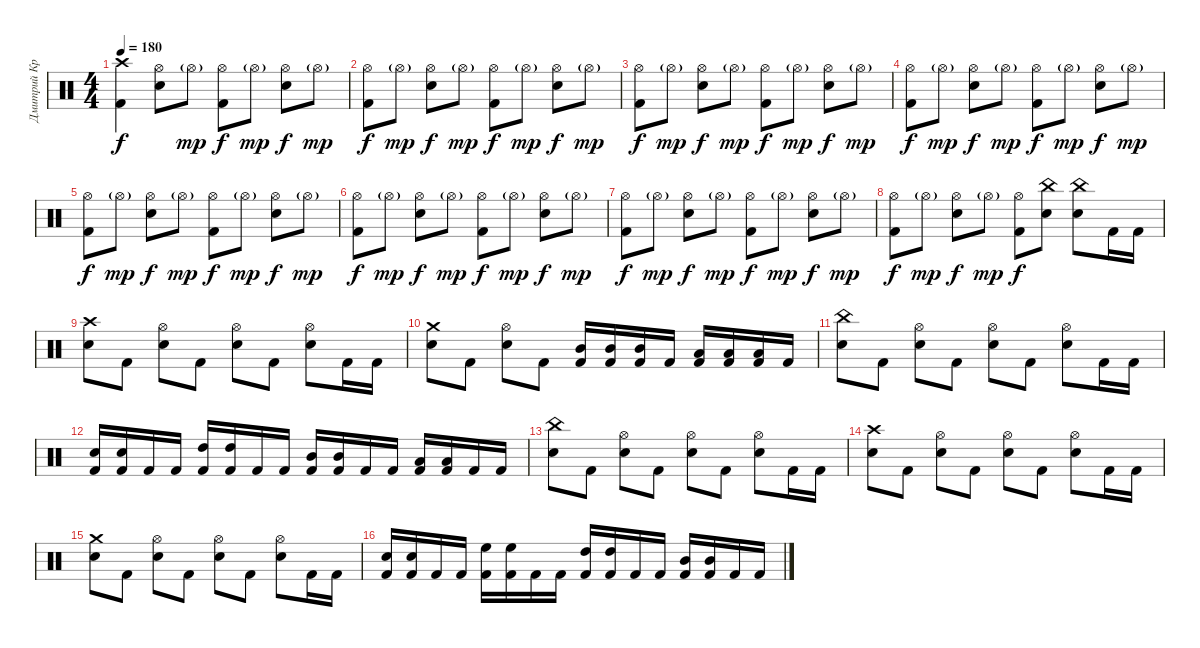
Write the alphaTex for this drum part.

\track ("Дмитрий Кривенков" "Дмитрий Кр") {instrument percussion}
\staff {score}
\articulation defaults
\ts (4 4)
\tempo 180
\clef neutral
\ks c
("Crash high (hit)" "Kick (hit) 2").4{dy f} ("Hi-Hat (open)" "Electric Snare (hit)").8 "Hi-Hat (open)"{g}.8{dy mp} ("Hi-Hat (open)" "Kick (hit) 2").8{dy f} "Hi-Hat (open)"{g}.8{dy mp} ("Hi-Hat (open)" "Electric Snare (hit)").8{dy f} "Hi-Hat (open)"{g}.8{dy mp} |
("Hi-Hat (open)" "Kick (hit) 2").8{dy f} "Hi-Hat (open)"{g}.8{dy mp} ("Hi-Hat (open)" "Electric Snare (hit)").8{dy f} "Hi-Hat (open)"{g}.8{dy mp} ("Hi-Hat (open)" "Kick (hit) 2").8{dy f} "Hi-Hat (open)"{g}.8{dy mp} ("Hi-Hat (open)" "Electric Snare (hit)").8{dy f} "Hi-Hat (open)"{g}.8{dy mp} |
("Hi-Hat (open)" "Kick (hit) 2").8{dy f} "Hi-Hat (open)"{g}.8{dy mp} ("Hi-Hat (open)" "Electric Snare (hit)").8{dy f} "Hi-Hat (open)"{g}.8{dy mp} ("Hi-Hat (open)" "Kick (hit) 2").8{dy f} "Hi-Hat (open)"{g}.8{dy mp} ("Hi-Hat (open)" "Electric Snare (hit)").8{dy f} "Hi-Hat (open)"{g}.8{dy mp} |
("Hi-Hat (open)" "Kick (hit) 2").8{dy f} "Hi-Hat (open)"{g}.8{dy mp} ("Hi-Hat (open)" "Electric Snare (hit)").8{dy f} "Hi-Hat (open)"{g}.8{dy mp} ("Hi-Hat (open)" "Kick (hit) 2").8{dy f} "Hi-Hat (open)"{g}.8{dy mp} ("Hi-Hat (open)" "Electric Snare (hit)").8{dy f} "Hi-Hat (open)"{g}.8{dy mp} |
("Hi-Hat (open)" "Kick (hit) 2").8{dy f} "Hi-Hat (open)"{g}.8{dy mp} ("Hi-Hat (open)" "Electric Snare (hit)").8{dy f} "Hi-Hat (open)"{g}.8{dy mp} ("Hi-Hat (open)" "Kick (hit) 2").8{dy f} "Hi-Hat (open)"{g}.8{dy mp} ("Hi-Hat (open)" "Electric Snare (hit)").8{dy f} "Hi-Hat (open)"{g}.8{dy mp} |
("Hi-Hat (open)" "Kick (hit) 2").8{dy f} "Hi-Hat (open)"{g}.8{dy mp} ("Hi-Hat (open)" "Electric Snare (hit)").8{dy f} "Hi-Hat (open)"{g}.8{dy mp} ("Hi-Hat (open)" "Kick (hit) 2").8{dy f} "Hi-Hat (open)"{g}.8{dy mp} ("Hi-Hat (open)" "Electric Snare (hit)").8{dy f} "Hi-Hat (open)"{g}.8{dy mp} |
("Hi-Hat (open)" "Kick (hit) 2").8{dy f} "Hi-Hat (open)"{g}.8{dy mp} ("Hi-Hat (open)" "Electric Snare (hit)").8{dy f} "Hi-Hat (open)"{g}.8{dy mp} ("Hi-Hat (open)" "Kick (hit) 2").8{dy f} "Hi-Hat (open)"{g}.8{dy mp} ("Hi-Hat (open)" "Electric Snare (hit)").8{dy f} "Hi-Hat (open)"{g}.8{dy mp} |
("Hi-Hat (open)" "Kick (hit) 2").8{dy f} "Hi-Hat (open)"{g}.8{dy mp} ("Hi-Hat (open)" "Electric Snare (hit)").8{dy f} "Hi-Hat (open)"{g}.8{dy mp} ("Hi-Hat (open)" "Kick (hit) 2").8{dy f} ("China (hit)" "Electric Snare (hit)").8 ("China (hit)" "Electric Snare (hit)").8 "Kick (hit) 2".16 "Kick (hit) 2".16 |
("Crash high (hit)" "Electric Snare (hit)").8 "Kick (hit) 2".8 ("Hi-Hat (open)" "Electric Snare (hit)").8 "Kick (hit) 2".8 ("Hi-Hat (open)" "Electric Snare (hit)").8 "Kick (hit) 2".8 ("Hi-Hat (open)" "Electric Snare (hit)").8 "Kick (hit) 2".16 "Kick (hit) 2".16 |
("Crash medium (hit)" "Electric Snare (hit)").8 "Kick (hit) 2".8 ("Hi-Hat (open)" "Electric Snare (hit)").8 "Kick (hit) 2".8 ("Mid Tom (hit)" "Kick (hit) 2").16 ("Mid Tom (hit)" "Kick (hit) 2").16 ("Mid Tom (hit)" "Kick (hit) 2").16 "Kick (hit) 2".16 ("Low Tom (hit)" "Kick (hit) 2").16 ("Low Tom (hit)" "Kick (hit) 2").16 ("Low Tom (hit)" "Kick (hit) 2").16 "Kick (hit) 2".16 |
("China (hit)" "Electric Snare (hit)").8 "Kick (hit) 2".8 ("Hi-Hat (open)" "Electric Snare (hit)").8 "Kick (hit) 2".8 ("Hi-Hat (open)" "Electric Snare (hit)").8 "Kick (hit) 2".8 ("Hi-Hat (open)" "Electric Snare (hit)").8 "Kick (hit) 2".16 "Kick (hit) 2".16 |
("Electric Snare (hit)" "Kick (hit) 2").16 ("Electric Snare (hit)" "Kick (hit) 2").16 "Kick (hit) 2".16 "Kick (hit) 2".16 ("High Tom (hit)" "Kick (hit) 2").16 ("High Tom (hit)" "Kick (hit) 2").16 "Kick (hit) 2".16 "Kick (hit) 2".16 ("Mid Tom (hit)" "Kick (hit) 2").16 ("Mid Tom (hit)" "Kick (hit) 2").16 "Kick (hit) 2".16 "Kick (hit) 2".16 ("Low Tom (hit)" "Kick (hit) 2").16 ("Low Tom (hit)" "Kick (hit) 2").16 "Kick (hit) 2".16 "Kick (hit) 2".16 |
("China (hit)" "Electric Snare (hit)").8 "Kick (hit) 2".8 ("Hi-Hat (open)" "Electric Snare (hit)").8 "Kick (hit) 2".8 ("Hi-Hat (open)" "Electric Snare (hit)").8 "Kick (hit) 2".8 ("Hi-Hat (open)" "Electric Snare (hit)").8 "Kick (hit) 2".16 "Kick (hit) 2".16 |
("Crash high (hit)" "Electric Snare (hit)").8 "Kick (hit) 2".8 ("Hi-Hat (open)" "Electric Snare (hit)").8 "Kick (hit) 2".8 ("Hi-Hat (open)" "Electric Snare (hit)").8 "Kick (hit) 2".8 ("Hi-Hat (open)" "Electric Snare (hit)").8 "Kick (hit) 2".16 "Kick (hit) 2".16 |
("Crash medium (hit)" "Electric Snare (hit)").8 "Kick (hit) 2".8 ("Hi-Hat (open)" "Electric Snare (hit)").8 "Kick (hit) 2".8 ("Hi-Hat (open)" "Electric Snare (hit)").8 "Kick (hit) 2".8 ("Hi-Hat (open)" "Electric Snare (hit)").8 "Kick (hit) 2".16 "Kick (hit) 2".16 |
("Electric Snare (hit)" "Kick (hit) 2").16 ("Electric Snare (hit)" "Kick (hit) 2").16 "Kick (hit) 2".16 "Kick (hit) 2".16 ("High Floor Tom (hit)" "Kick (hit) 2").16 ("High Floor Tom (hit)" "Kick (hit) 2").16 "Kick (hit) 2".16 "Kick (hit) 2".16 ("High Tom (hit)" "Kick (hit) 2").16 ("High Tom (hit)" "Kick (hit) 2").16 "Kick (hit) 2".16 "Kick (hit) 2".16 ("Mid Tom (hit)" "Kick (hit) 2").16 ("Mid Tom (hit)" "Kick (hit) 2").16 "Kick (hit) 2".16 "Kick (hit) 2".16
